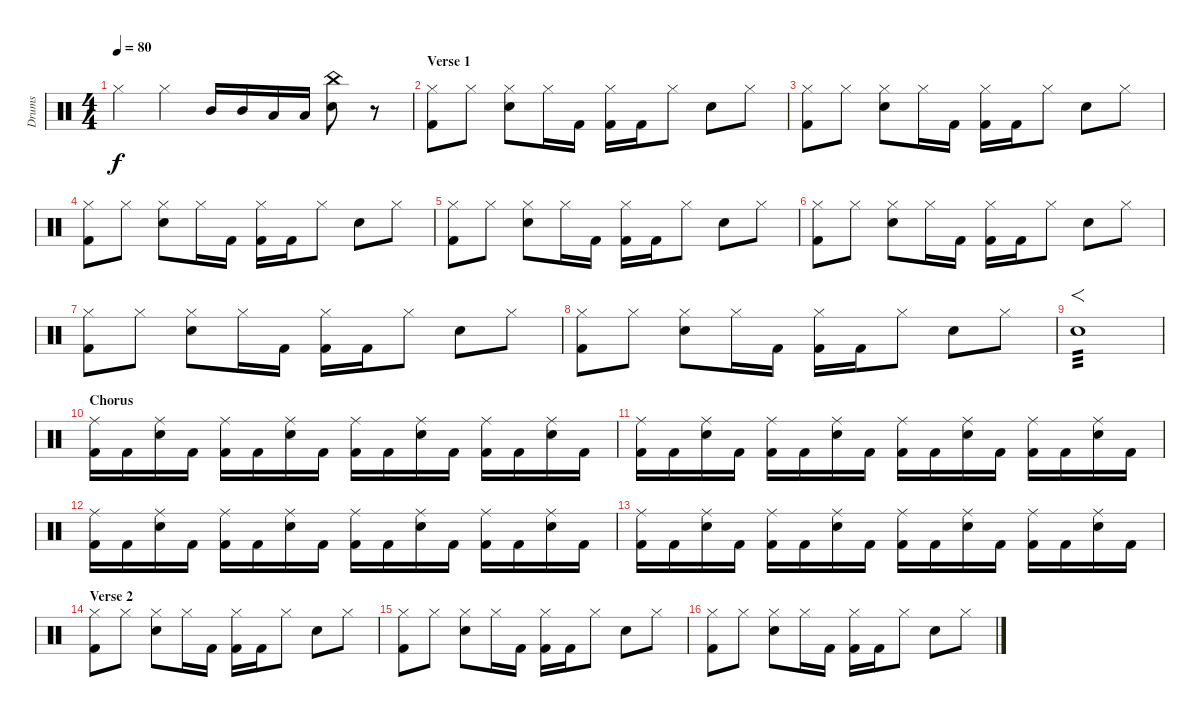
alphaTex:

\track ("Drums" "Drums") {instrument percussion}
\staff {score}
\articulation defaults
\ts (4 4)
\tempo 80
\clef neutral
\ks c "Hi-Hat (closed)".4{dy f} "Hi-Hat (closed)".4 "Mid Tom (hit)".16 "Mid Tom (hit)".16 "Low Floor Tom (hit)".16 "Low Floor Tom (hit)".16
("China (hit)" "Electric Snare (hit)").8 r.8 |
\section ("" "Verse 1")
("Hi-Hat (closed)" "Kick (hit) 2").8 "Hi-Hat (closed)".8 ("Hi-Hat (closed)" "Electric Snare (hit)").8 "Hi-Hat (closed)".16 "Kick (hit) 2".16 ("Hi-Hat (closed)" "Kick (hit) 2").16 "Kick (hit) 2".16 "Hi-Hat (closed)".8 "Electric Snare (hit)".8 "Hi-Hat (closed)".8 |
("Hi-Hat (closed)" "Kick (hit) 2").8 "Hi-Hat (closed)".8 ("Hi-Hat (closed)" "Electric Snare (hit)").8 "Hi-Hat (closed)".16 "Kick (hit) 2".16 ("Hi-Hat (closed)" "Kick (hit) 2").16 "Kick (hit) 2".16 "Hi-Hat (closed)".8 "Electric Snare (hit)".8 "Hi-Hat (closed)".8 |
("Hi-Hat (closed)" "Kick (hit) 2").8 "Hi-Hat (closed)".8 ("Hi-Hat (closed)" "Electric Snare (hit)").8 "Hi-Hat (closed)".16 "Kick (hit) 2".16 ("Hi-Hat (closed)" "Kick (hit) 2").16 "Kick (hit) 2".16 "Hi-Hat (closed)".8 "Electric Snare (hit)".8 "Hi-Hat (closed)".8 |
("Hi-Hat (closed)" "Kick (hit) 2").8 "Hi-Hat (closed)".8 ("Hi-Hat (closed)" "Electric Snare (hit)").8 "Hi-Hat (closed)".16 "Kick (hit) 2".16 ("Hi-Hat (closed)" "Kick (hit) 2").16 "Kick (hit) 2".16 "Hi-Hat (closed)".8 "Electric Snare (hit)".8 "Hi-Hat (closed)".8 |
("Hi-Hat (closed)" "Kick (hit) 2").8 "Hi-Hat (closed)".8 ("Hi-Hat (closed)" "Electric Snare (hit)").8 "Hi-Hat (closed)".16 "Kick (hit) 2".16 ("Hi-Hat (closed)" "Kick (hit) 2").16 "Kick (hit) 2".16 "Hi-Hat (closed)".8 "Electric Snare (hit)".8 "Hi-Hat (closed)".8 |
("Hi-Hat (closed)" "Kick (hit) 2").8 "Hi-Hat (closed)".8 ("Hi-Hat (closed)" "Electric Snare (hit)").8 "Hi-Hat (closed)".16 "Kick (hit) 2".16 ("Hi-Hat (closed)" "Kick (hit) 2").16 "Kick (hit) 2".16 "Hi-Hat (closed)".8 "Electric Snare (hit)".8 "Hi-Hat (closed)".8 |
("Hi-Hat (closed)" "Kick (hit) 2").8 "Hi-Hat (closed)".8 ("Hi-Hat (closed)" "Electric Snare (hit)").8 "Hi-Hat (closed)".16 "Kick (hit) 2".16 ("Hi-Hat (closed)" "Kick (hit) 2").16 "Kick (hit) 2".16 "Hi-Hat (closed)".8 "Electric Snare (hit)".8 "Hi-Hat (closed)".8 |
"Electric Snare (hit)".1{f tp 3} |
\section ("" "Chorus")
("Ride (middle)" "Kick (hit) 2").16 "Kick (hit) 2".16 ("Ride (middle)" "Electric Snare (hit)").16 "Kick (hit) 2".16 ("Ride (middle)" "Kick (hit) 2").16 "Kick (hit) 2".16 ("Ride (middle)" "Electric Snare (hit)").16 "Kick (hit) 2".16 ("Ride (middle)" "Kick (hit) 2").16 "Kick (hit) 2".16 ("Ride (middle)" "Electric Snare (hit)").16 "Kick (hit) 2".16 ("Ride (middle)" "Kick (hit) 2").16 "Kick (hit) 2".16 ("Ride (middle)" "Electric Snare (hit)").16 "Kick (hit) 2".16 |
("Ride (middle)" "Kick (hit) 2").16 "Kick (hit) 2".16 ("Ride (middle)" "Electric Snare (hit)").16 "Kick (hit) 2".16 ("Ride (middle)" "Kick (hit) 2").16 "Kick (hit) 2".16 ("Ride (middle)" "Electric Snare (hit)").16 "Kick (hit) 2".16 ("Ride (middle)" "Kick (hit) 2").16 "Kick (hit) 2".16 ("Ride (middle)" "Electric Snare (hit)").16 "Kick (hit) 2".16 ("Ride (middle)" "Kick (hit) 2").16 "Kick (hit) 2".16 ("Ride (middle)" "Electric Snare (hit)").16 "Kick (hit) 2".16 |
("Ride (middle)" "Kick (hit) 2").16 "Kick (hit) 2".16 ("Ride (middle)" "Electric Snare (hit)").16 "Kick (hit) 2".16 ("Ride (middle)" "Kick (hit) 2").16 "Kick (hit) 2".16 ("Ride (middle)" "Electric Snare (hit)").16 "Kick (hit) 2".16 ("Ride (middle)" "Kick (hit) 2").16 "Kick (hit) 2".16 ("Ride (middle)" "Electric Snare (hit)").16 "Kick (hit) 2".16 ("Ride (middle)" "Kick (hit) 2").16 "Kick (hit) 2".16 ("Ride (middle)" "Electric Snare (hit)").16 "Kick (hit) 2".16 |
("Ride (middle)" "Kick (hit) 2").16 "Kick (hit) 2".16 ("Ride (middle)" "Electric Snare (hit)").16 "Kick (hit) 2".16 ("Ride (middle)" "Kick (hit) 2").16 "Kick (hit) 2".16 ("Ride (middle)" "Electric Snare (hit)").16 "Kick (hit) 2".16 ("Ride (middle)" "Kick (hit) 2").16 "Kick (hit) 2".16 ("Ride (middle)" "Electric Snare (hit)").16 "Kick (hit) 2".16 ("Ride (middle)" "Kick (hit) 2").16 "Kick (hit) 2".16 ("Ride (middle)" "Electric Snare (hit)").16 "Kick (hit) 2".16 |
\section ("" "Verse 2")
("Hi-Hat (closed)" "Kick (hit) 2").8 "Hi-Hat (closed)".8 ("Hi-Hat (closed)" "Electric Snare (hit)").8 "Hi-Hat (closed)".16 "Kick (hit) 2".16 ("Hi-Hat (closed)" "Kick (hit) 2").16 "Kick (hit) 2".16 "Hi-Hat (closed)".8 "Electric Snare (hit)".8 "Hi-Hat (closed)".8 |
("Hi-Hat (closed)" "Kick (hit) 2").8 "Hi-Hat (closed)".8 ("Hi-Hat (closed)" "Electric Snare (hit)").8 "Hi-Hat (closed)".16 "Kick (hit) 2".16 ("Hi-Hat (closed)" "Kick (hit) 2").16 "Kick (hit) 2".16 "Hi-Hat (closed)".8 "Electric Snare (hit)".8 "Hi-Hat (closed)".8 |
("Hi-Hat (closed)" "Kick (hit) 2").8 "Hi-Hat (closed)".8 ("Hi-Hat (closed)" "Electric Snare (hit)").8 "Hi-Hat (closed)".16 "Kick (hit) 2".16 ("Hi-Hat (closed)" "Kick (hit) 2").16 "Kick (hit) 2".16 "Hi-Hat (closed)".8 "Electric Snare (hit)".8 "Hi-Hat (closed)".8
